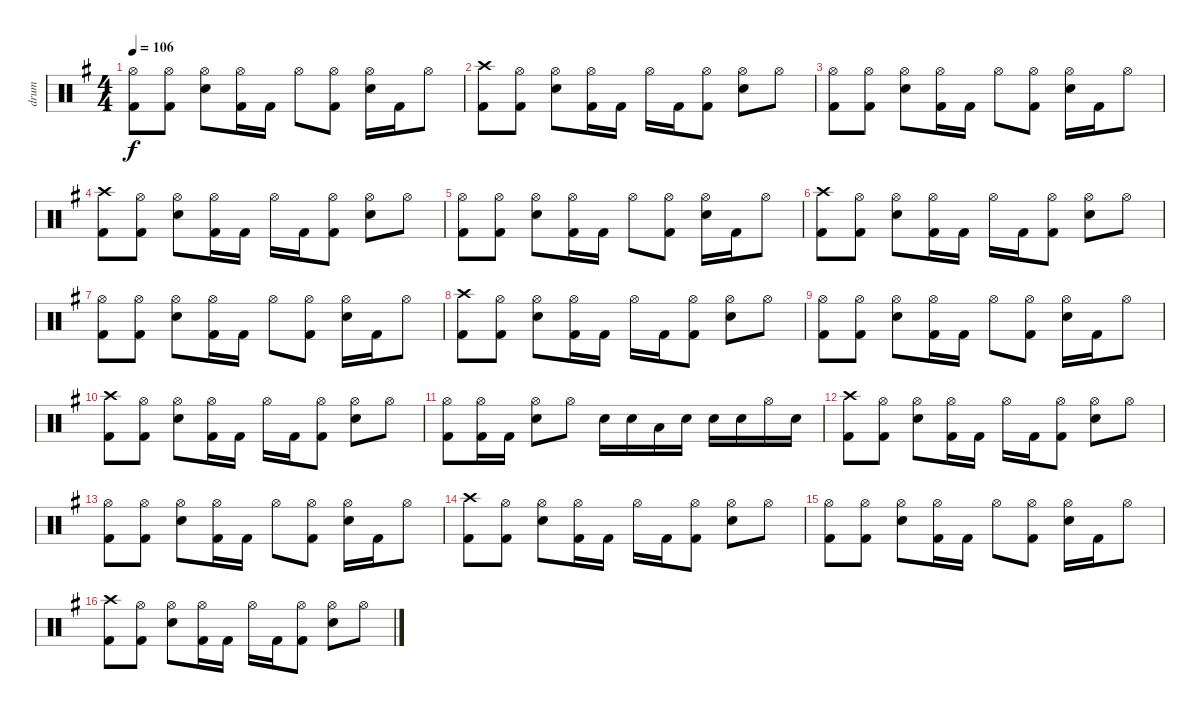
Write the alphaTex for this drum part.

\track ("drum" "drum") {instrument percussion}
\staff {score}
\articulation defaults
\ts (4 4)
\tempo 106
\clef neutral
\ks eminor
("Hi-Hat (open)" "Kick (hit) 2").8{dy f} ("Hi-Hat (open)" "Kick (hit) 2").8 ("Hi-Hat (open)" "Electric Snare (hit)").8 ("Hi-Hat (open)" "Kick (hit) 2").16 "Kick (hit) 2".16 "Hi-Hat (open)".8 ("Hi-Hat (open)" "Kick (hit) 2").8 ("Hi-Hat (open)" "Electric Snare (hit)").16 "Kick (hit) 2".16 "Hi-Hat (open)".8 |
("Crash high (hit)" "Kick (hit) 2").8 ("Hi-Hat (open)" "Kick (hit) 2").8 ("Hi-Hat (open)" "Electric Snare (hit)").8 ("Hi-Hat (open)" "Kick (hit) 2").16 "Kick (hit) 2".16 "Hi-Hat (open)".16 "Kick (hit) 2".16 ("Hi-Hat (open)" "Kick (hit) 2").8 ("Hi-Hat (open)" "Electric Snare (hit)").8 "Hi-Hat (open)".8 |
("Hi-Hat (open)" "Kick (hit) 2").8 ("Hi-Hat (open)" "Kick (hit) 2").8 ("Hi-Hat (open)" "Electric Snare (hit)").8 ("Hi-Hat (open)" "Kick (hit) 2").16 "Kick (hit) 2".16 "Hi-Hat (open)".8 ("Hi-Hat (open)" "Kick (hit) 2").8 ("Hi-Hat (open)" "Electric Snare (hit)").16 "Kick (hit) 2".16 "Hi-Hat (open)".8 |
("Crash high (hit)" "Kick (hit) 2").8 ("Hi-Hat (open)" "Kick (hit) 2").8 ("Hi-Hat (open)" "Electric Snare (hit)").8 ("Hi-Hat (open)" "Kick (hit) 2").16 "Kick (hit) 2".16 "Hi-Hat (open)".16 "Kick (hit) 2".16 ("Hi-Hat (open)" "Kick (hit) 2").8 ("Hi-Hat (open)" "Electric Snare (hit)").8 "Hi-Hat (open)".8 |
("Hi-Hat (open)" "Kick (hit) 2").8 ("Hi-Hat (open)" "Kick (hit) 2").8 ("Hi-Hat (open)" "Electric Snare (hit)").8 ("Hi-Hat (open)" "Kick (hit) 2").16 "Kick (hit) 2".16 "Hi-Hat (open)".8 ("Hi-Hat (open)" "Kick (hit) 2").8 ("Hi-Hat (open)" "Electric Snare (hit)").16 "Kick (hit) 2".16 "Hi-Hat (open)".8 |
("Crash high (hit)" "Kick (hit) 2").8 ("Hi-Hat (open)" "Kick (hit) 2").8 ("Hi-Hat (open)" "Electric Snare (hit)").8 ("Hi-Hat (open)" "Kick (hit) 2").16 "Kick (hit) 2".16 "Hi-Hat (open)".16 "Kick (hit) 2".16 ("Hi-Hat (open)" "Kick (hit) 2").8 ("Hi-Hat (open)" "Electric Snare (hit)").8 "Hi-Hat (open)".8 |
("Hi-Hat (open)" "Kick (hit) 2").8 ("Hi-Hat (open)" "Kick (hit) 2").8 ("Hi-Hat (open)" "Electric Snare (hit)").8 ("Hi-Hat (open)" "Kick (hit) 2").16 "Kick (hit) 2".16 "Hi-Hat (open)".8 ("Hi-Hat (open)" "Kick (hit) 2").8 ("Hi-Hat (open)" "Electric Snare (hit)").16 "Kick (hit) 2".16 "Hi-Hat (open)".8 |
("Crash high (hit)" "Kick (hit) 2").8 ("Hi-Hat (open)" "Kick (hit) 2").8 ("Hi-Hat (open)" "Electric Snare (hit)").8 ("Hi-Hat (open)" "Kick (hit) 2").16 "Kick (hit) 2".16 "Hi-Hat (open)".16 "Kick (hit) 2".16 ("Hi-Hat (open)" "Kick (hit) 2").8 ("Hi-Hat (open)" "Electric Snare (hit)").8 "Hi-Hat (open)".8 |
("Hi-Hat (open)" "Kick (hit) 2").8 ("Hi-Hat (open)" "Kick (hit) 2").8 ("Hi-Hat (open)" "Electric Snare (hit)").8 ("Hi-Hat (open)" "Kick (hit) 2").16 "Kick (hit) 2".16 "Hi-Hat (open)".8 ("Hi-Hat (open)" "Kick (hit) 2").8 ("Hi-Hat (open)" "Electric Snare (hit)").16 "Kick (hit) 2".16 "Hi-Hat (open)".8 |
("Crash high (hit)" "Kick (hit) 2").8 ("Hi-Hat (open)" "Kick (hit) 2").8 ("Hi-Hat (open)" "Electric Snare (hit)").8 ("Hi-Hat (open)" "Kick (hit) 2").16 "Kick (hit) 2".16 "Hi-Hat (open)".16 "Kick (hit) 2".16 ("Hi-Hat (open)" "Kick (hit) 2").8 ("Hi-Hat (open)" "Electric Snare (hit)").8 "Hi-Hat (open)".8 |
("Hi-Hat (open)" "Kick (hit) 2").8 ("Hi-Hat (open)" "Kick (hit) 2").16 "Kick (hit) 2".16 ("Hi-Hat (open)" "Electric Snare (hit)").8 "Hi-Hat (open)".8 "Electric Snare (hit)".16 "Electric Snare (hit)".16 "Low Tom (hit)".16 "Electric Snare (hit)".16 "Electric Snare (hit)".16 "Electric Snare (hit)".16 "Hi-Hat (open)".16 "Electric Snare (hit)".16 |
("Crash high (hit)" "Kick (hit) 2").8 ("Hi-Hat (open)" "Kick (hit) 2").8 ("Hi-Hat (open)" "Electric Snare (hit)").8 ("Hi-Hat (open)" "Kick (hit) 2").16 "Kick (hit) 2".16 "Hi-Hat (open)".16 "Kick (hit) 2".16 ("Hi-Hat (open)" "Kick (hit) 2").8 ("Hi-Hat (open)" "Electric Snare (hit)").8 "Hi-Hat (open)".8 |
("Hi-Hat (open)" "Kick (hit) 2").8 ("Hi-Hat (open)" "Kick (hit) 2").8 ("Hi-Hat (open)" "Electric Snare (hit)").8 ("Hi-Hat (open)" "Kick (hit) 2").16 "Kick (hit) 2".16 "Hi-Hat (open)".8 ("Hi-Hat (open)" "Kick (hit) 2").8 ("Hi-Hat (open)" "Electric Snare (hit)").16 "Kick (hit) 2".16 "Hi-Hat (open)".8 |
("Crash high (hit)" "Kick (hit) 2").8 ("Hi-Hat (open)" "Kick (hit) 2").8 ("Hi-Hat (open)" "Electric Snare (hit)").8 ("Hi-Hat (open)" "Kick (hit) 2").16 "Kick (hit) 2".16 "Hi-Hat (open)".16 "Kick (hit) 2".16 ("Hi-Hat (open)" "Kick (hit) 2").8 ("Hi-Hat (open)" "Electric Snare (hit)").8 "Hi-Hat (open)".8 |
("Hi-Hat (open)" "Kick (hit) 2").8 ("Hi-Hat (open)" "Kick (hit) 2").8 ("Hi-Hat (open)" "Electric Snare (hit)").8 ("Hi-Hat (open)" "Kick (hit) 2").16 "Kick (hit) 2".16 "Hi-Hat (open)".8 ("Hi-Hat (open)" "Kick (hit) 2").8 ("Hi-Hat (open)" "Electric Snare (hit)").16 "Kick (hit) 2".16 "Hi-Hat (open)".8 |
("Crash high (hit)" "Kick (hit) 2").8 ("Hi-Hat (open)" "Kick (hit) 2").8 ("Hi-Hat (open)" "Electric Snare (hit)").8 ("Hi-Hat (open)" "Kick (hit) 2").16 "Kick (hit) 2".16 "Hi-Hat (open)".16 "Kick (hit) 2".16 ("Hi-Hat (open)" "Kick (hit) 2").8 ("Hi-Hat (open)" "Electric Snare (hit)").8 "Hi-Hat (open)".8
